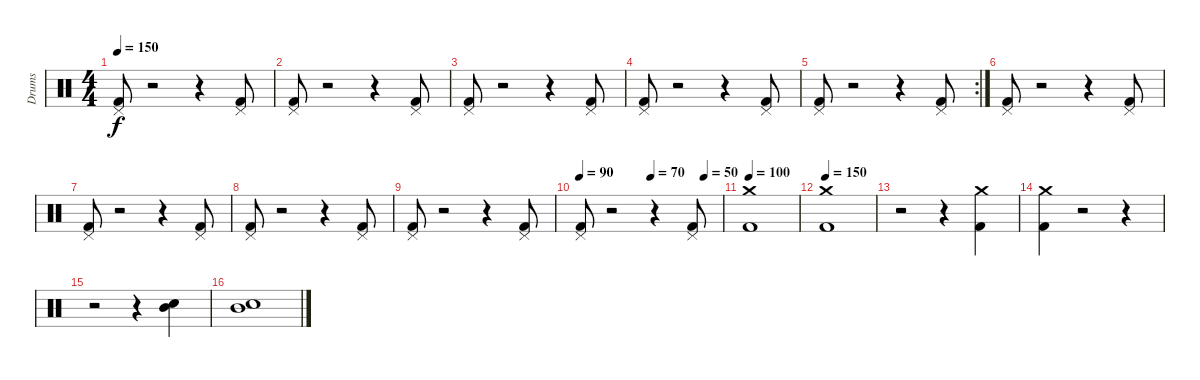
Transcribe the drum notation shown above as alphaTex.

\track ("Drums" "Drums") {instrument percussion}
\staff {score}
\articulation defaults
\ts (4 4)
\tempo 150
\tempo 120
\tempo 150
\clef neutral
\ks c
("Kick (hit) 2" "Pedal Hi-Hat (hit)").8{dy f} r.2 r.4 ("Kick (hit) 2" "Pedal Hi-Hat (hit)").8 |
("Kick (hit) 2" "Pedal Hi-Hat (hit)").8 r.2 r.4 ("Kick (hit) 2" "Pedal Hi-Hat (hit)").8 |
("Kick (hit) 2" "Pedal Hi-Hat (hit)").8 r.2 r.4 ("Kick (hit) 2" "Pedal Hi-Hat (hit)").8 |
("Kick (hit) 2" "Pedal Hi-Hat (hit)").8 r.2 r.4 ("Kick (hit) 2" "Pedal Hi-Hat (hit)").8 |
\rc 2
("Kick (hit) 2" "Pedal Hi-Hat (hit)").8 r.2 r.4 ("Kick (hit) 2" "Pedal Hi-Hat (hit)").8 |
("Kick (hit) 2" "Pedal Hi-Hat (hit)").8 r.2 r.4 ("Kick (hit) 2" "Pedal Hi-Hat (hit)").8 |
("Kick (hit) 2" "Pedal Hi-Hat (hit)").8 r.2 r.4 ("Kick (hit) 2" "Pedal Hi-Hat (hit)").8 |
("Kick (hit) 2" "Pedal Hi-Hat (hit)").8 r.2 r.4 ("Kick (hit) 2" "Pedal Hi-Hat (hit)").8 |
("Kick (hit) 2" "Pedal Hi-Hat (hit)").8 r.2 r.4 ("Kick (hit) 2" "Pedal Hi-Hat (hit)").8 |
\tempo 90
\tempo (70 0.5)
\tempo (50 0.875)
("Kick (hit) 2" "Pedal Hi-Hat (hit)").8 r.2 r.4 ("Kick (hit) 2" "Pedal Hi-Hat (hit)").8 |
\tempo 100
("Kick (hit) 2" "Crash medium (hit)").1 |
\tempo 150
("Kick (hit) 2" "Crash medium (hit)").1 |
r.2 r.4 ("Kick (hit) 2" "Crash medium (hit)").4 |
("Kick (hit) 2" "Crash medium (hit)").4 r.2 r.4 |
r.2 r.4 ("Mid Tom (hit)" "Electric Snare (hit)").4 |
("Mid Tom (hit)" "Electric Snare (hit)").1
